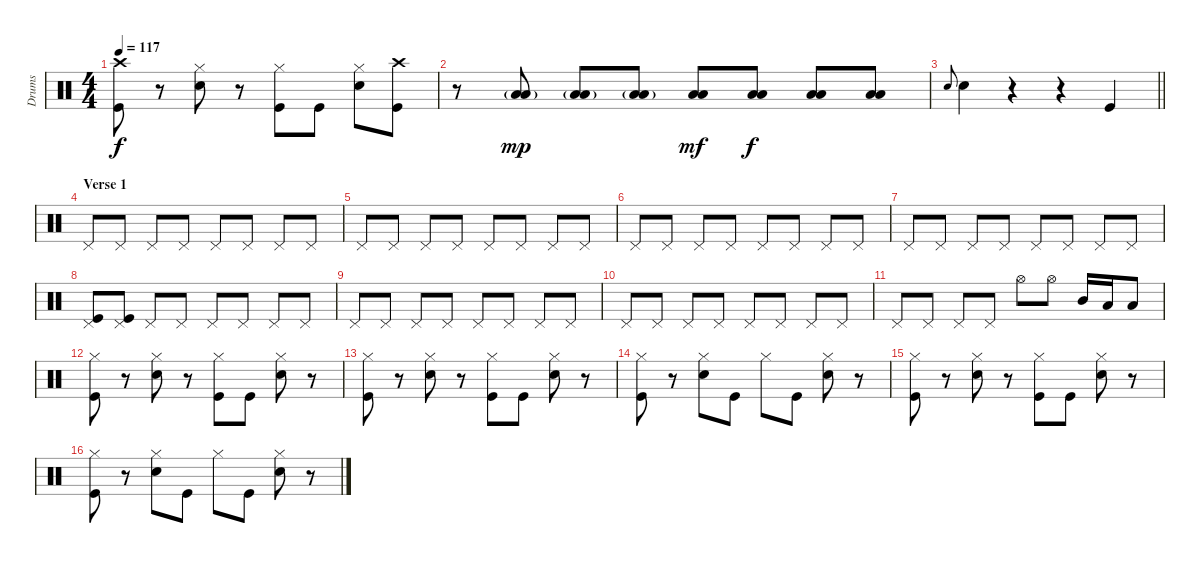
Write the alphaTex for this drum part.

\track ("Drums" "Drums") {instrument percussion}
\staff {score}
\articulation defaults
\ts (4 4)
\tempo 117
\clef neutral
\ks c
("Crash high (hit)" "Kick (hit)").8{dy f} r.8 ("Hi-Hat (closed)" "Snare (hit) 2").8 r.8 ("Hi-Hat (closed)" "Kick (hit)").8 "Kick (hit)".8 ("Hi-Hat (closed)" "Snare (hit) 2").8 ("Crash high (hit)" "Kick (hit)").8 |
r.8 ("Low Floor Tom (hit)"{g} "Low Tom (hit)"{g}).8{dy mp} ("Low Floor Tom (hit)"{g} "Low Tom (hit)"{g}).8 ("Low Floor Tom (hit)"{g} "Low Tom (hit)"{g}).8 ("Low Floor Tom (hit)" "Low Tom (hit)").8{dy mf} ("Low Floor Tom (hit)" "Low Tom (hit)").8{dy f} ("Low Floor Tom (hit)" "Low Tom (hit)").8 ("Low Floor Tom (hit)" "Low Tom (hit)").8 |
\barLineRight lightlight "Snare (hit) 2".8{gr onbeat} "Snare (hit) 2".4
r.4 r.4 "Kick (hit)".4 |
\section ("" "Verse 1")
"Pedal Hi-Hat (hit)".8 "Pedal Hi-Hat (hit)".8 "Pedal Hi-Hat (hit)".8 "Pedal Hi-Hat (hit)".8 "Pedal Hi-Hat (hit)".8 "Pedal Hi-Hat (hit)".8 "Pedal Hi-Hat (hit)".8 "Pedal Hi-Hat (hit)".8 |
"Pedal Hi-Hat (hit)".8 "Pedal Hi-Hat (hit)".8 "Pedal Hi-Hat (hit)".8 "Pedal Hi-Hat (hit)".8 "Pedal Hi-Hat (hit)".8 "Pedal Hi-Hat (hit)".8 "Pedal Hi-Hat (hit)".8 "Pedal Hi-Hat (hit)".8 |
"Pedal Hi-Hat (hit)".8 "Pedal Hi-Hat (hit)".8 "Pedal Hi-Hat (hit)".8 "Pedal Hi-Hat (hit)".8 "Pedal Hi-Hat (hit)".8 "Pedal Hi-Hat (hit)".8 "Pedal Hi-Hat (hit)".8 "Pedal Hi-Hat (hit)".8 |
"Pedal Hi-Hat (hit)".8 "Pedal Hi-Hat (hit)".8 "Pedal Hi-Hat (hit)".8 "Pedal Hi-Hat (hit)".8 "Pedal Hi-Hat (hit)".8 "Pedal Hi-Hat (hit)".8 "Pedal Hi-Hat (hit)".8 "Pedal Hi-Hat (hit)".8 |
("Pedal Hi-Hat (hit)" "Kick (hit)").8 ("Pedal Hi-Hat (hit)" "Kick (hit)").8 "Pedal Hi-Hat (hit)".8 "Pedal Hi-Hat (hit)".8 "Pedal Hi-Hat (hit)".8 "Pedal Hi-Hat (hit)".8 "Pedal Hi-Hat (hit)".8 "Pedal Hi-Hat (hit)".8 |
"Pedal Hi-Hat (hit)".8 "Pedal Hi-Hat (hit)".8 "Pedal Hi-Hat (hit)".8 "Pedal Hi-Hat (hit)".8 "Pedal Hi-Hat (hit)".8 "Pedal Hi-Hat (hit)".8 "Pedal Hi-Hat (hit)".8 "Pedal Hi-Hat (hit)".8 |
"Pedal Hi-Hat (hit)".8 "Pedal Hi-Hat (hit)".8 "Pedal Hi-Hat (hit)".8 "Pedal Hi-Hat (hit)".8 "Pedal Hi-Hat (hit)".8 "Pedal Hi-Hat (hit)".8 "Pedal Hi-Hat (hit)".8 "Pedal Hi-Hat (hit)".8 |
"Pedal Hi-Hat (hit)".8 "Pedal Hi-Hat (hit)".8 "Pedal Hi-Hat (hit)".8 "Pedal Hi-Hat (hit)".8 "Hi-Hat (open)".8 "Hi-Hat (open)".8 "Mid Tom (hit)".16 "Low Tom (hit)".16 "Low Floor Tom (hit)".8 |
("Hi-Hat (closed)" "Kick (hit)").8 r.8 ("Hi-Hat (closed)" "Snare (hit) 2").8 r.8 ("Hi-Hat (closed)" "Kick (hit)").8 "Kick (hit)".8 ("Hi-Hat (closed)" "Snare (hit) 2").8 r.8 |
("Hi-Hat (closed)" "Kick (hit)").8 r.8 ("Hi-Hat (closed)" "Snare (hit) 2").8 r.8 ("Hi-Hat (closed)" "Kick (hit)").8 "Kick (hit)".8 ("Hi-Hat (closed)" "Snare (hit) 2").8 r.8 |
("Hi-Hat (closed)" "Kick (hit)").8 r.8 ("Hi-Hat (closed)" "Snare (hit) 2").8 "Kick (hit)".8 "Hi-Hat (closed)".8 "Kick (hit)".8 ("Hi-Hat (closed)" "Snare (hit) 2").8 r.8 |
("Hi-Hat (closed)" "Kick (hit)").8 r.8 ("Hi-Hat (closed)" "Snare (hit) 2").8 r.8 ("Hi-Hat (closed)" "Kick (hit)").8 "Kick (hit)".8 ("Hi-Hat (closed)" "Snare (hit) 2").8 r.8 |
("Hi-Hat (closed)" "Kick (hit)").8 r.8 ("Hi-Hat (closed)" "Snare (hit) 2").8 "Kick (hit)".8 "Hi-Hat (closed)".8 "Kick (hit)".8 ("Hi-Hat (closed)" "Snare (hit) 2").8 r.8
